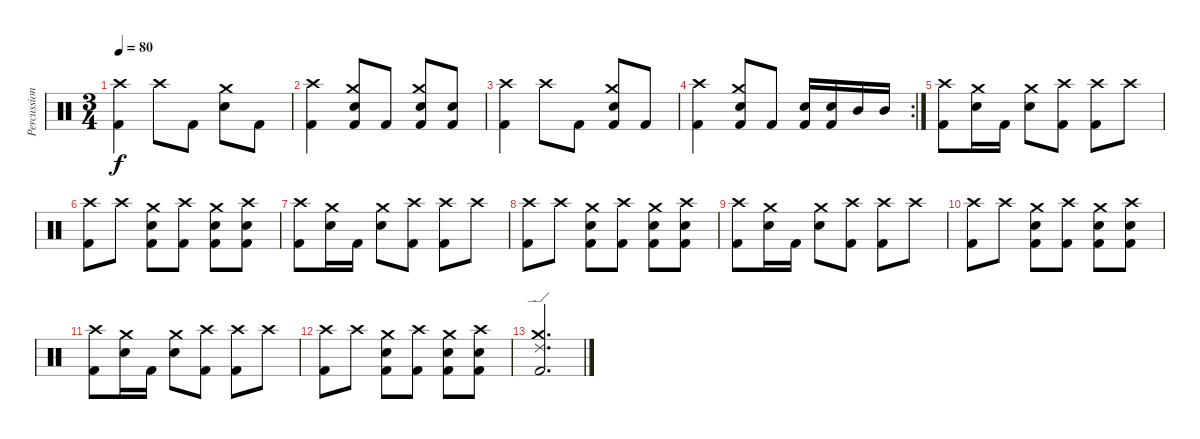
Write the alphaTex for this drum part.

\track ("Percussion" "Percussion") {instrument percussion}
\staff {score}
\articulation defaults
\ts (3 4)
\tempo 80
\clef neutral
\ks c
("Crash high (hit)" "Kick (hit) 2").4{dy f} "Crash high (hit)".8 "Kick (hit) 2".8 ("Crash medium (hit)" "Electric Snare (hit)").8 "Kick (hit) 2".8 |
("Crash high (hit)" "Kick (hit) 2").4 ("Crash medium (hit)" "Electric Snare (hit)" "Kick (hit) 2").8 "Kick (hit) 2".8 ("Crash medium (hit)" "Electric Snare (hit)" "Kick (hit) 2").8 ("Electric Snare (hit)" "Kick (hit) 2").8 |
("Crash high (hit)" "Kick (hit) 2").4 "Crash high (hit)".8 "Kick (hit) 2".8 ("Crash medium (hit)" "Electric Snare (hit)" "Kick (hit) 2").8 "Kick (hit) 2".8 |
\rc 2
("Crash high (hit)" "Kick (hit) 2").4 ("Crash medium (hit)" "Electric Snare (hit)" "Kick (hit) 2").8 "Kick (hit) 2".8 ("Electric Snare (hit)" "Kick (hit) 2").16 ("Electric Snare (hit)" "Kick (hit) 2").16 "Mid Tom (hit)".16 "Mid Tom (hit)".16 |
("Crash high (hit)" "Kick (hit) 2").8 ("Crash medium (hit)" "Electric Snare (hit)").16 "Kick (hit) 2".16 ("Crash medium (hit)" "Electric Snare (hit)").8 ("Crash high (hit)" "Kick (hit) 2").8 ("Crash high (hit)" "Kick (hit) 2").8 "Crash high (hit)".8 |
("Crash high (hit)" "Kick (hit) 2").8 "Crash high (hit)".8 ("Crash medium (hit)" "Electric Snare (hit)" "Kick (hit) 2").8 ("Crash high (hit)" "Kick (hit) 2").8 ("Crash medium (hit)" "Electric Snare (hit)" "Kick (hit) 2").8 ("Crash high (hit)" "Electric Snare (hit)" "Kick (hit) 2").8 |
("Crash high (hit)" "Kick (hit) 2").8 ("Crash medium (hit)" "Electric Snare (hit)").16 "Kick (hit) 2".16 ("Crash medium (hit)" "Electric Snare (hit)").8 ("Crash high (hit)" "Kick (hit) 2").8 ("Crash high (hit)" "Kick (hit) 2").8 "Crash high (hit)".8 |
("Crash high (hit)" "Kick (hit) 2").8 "Crash high (hit)".8 ("Crash medium (hit)" "Electric Snare (hit)" "Kick (hit) 2").8 ("Crash high (hit)" "Kick (hit) 2").8 ("Crash medium (hit)" "Electric Snare (hit)" "Kick (hit) 2").8 ("Crash high (hit)" "Electric Snare (hit)" "Kick (hit) 2").8 |
("Crash high (hit)" "Kick (hit) 2").8 ("Crash medium (hit)" "Electric Snare (hit)").16 "Kick (hit) 2".16 ("Crash medium (hit)" "Electric Snare (hit)").8 ("Crash high (hit)" "Kick (hit) 2").8 ("Crash high (hit)" "Kick (hit) 2").8 "Crash high (hit)".8 |
("Crash high (hit)" "Kick (hit) 2").8 "Crash high (hit)".8 ("Crash medium (hit)" "Electric Snare (hit)" "Kick (hit) 2").8 ("Crash high (hit)" "Kick (hit) 2").8 ("Crash medium (hit)" "Electric Snare (hit)" "Kick (hit) 2").8 ("Crash high (hit)" "Electric Snare (hit)" "Kick (hit) 2").8 |
("Crash high (hit)" "Kick (hit) 2").8 ("Crash medium (hit)" "Electric Snare (hit)").16 "Kick (hit) 2".16 ("Crash medium (hit)" "Electric Snare (hit)").8 ("Crash high (hit)" "Kick (hit) 2").8 ("Crash high (hit)" "Kick (hit) 2").8 "Crash high (hit)".8 |
("Crash high (hit)" "Kick (hit) 2").8 "Crash high (hit)".8 ("Crash medium (hit)" "Electric Snare (hit)" "Kick (hit) 2").8 ("Crash high (hit)" "Kick (hit) 2").8 ("Crash medium (hit)" "Electric Snare (hit)" "Kick (hit) 2").8 ("Crash high (hit)" "Electric Snare (hit)" "Kick (hit) 2").8 |
("Crash medium (hit)" "Ride (edge) 2" "Kick (hit) 2").2{d}
